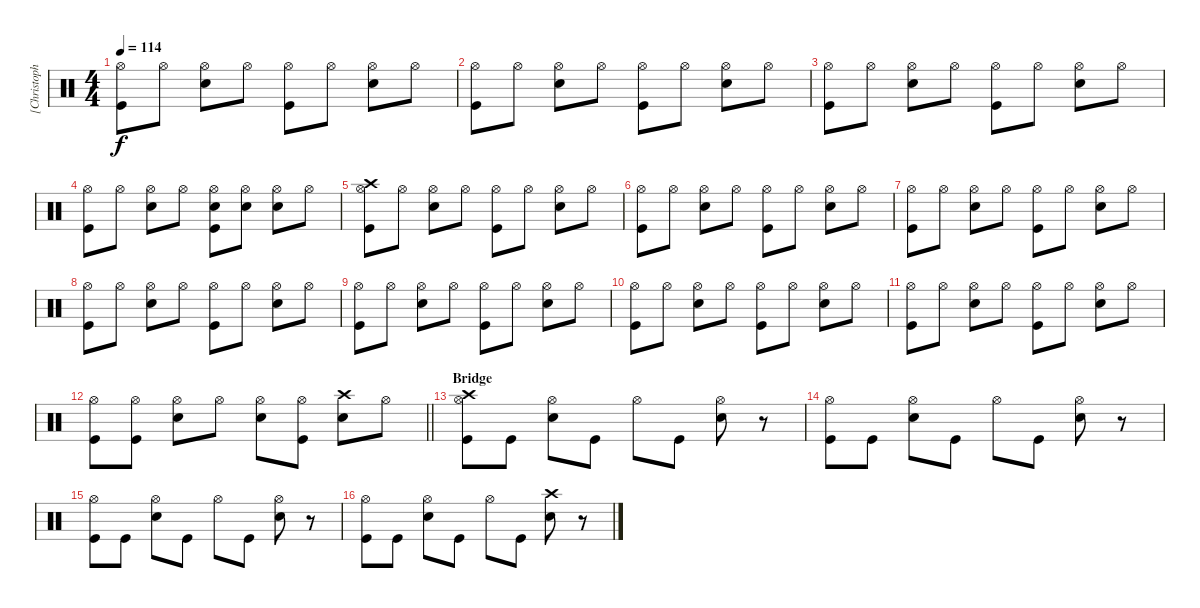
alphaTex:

\track ("[Christoph Schneider] ;Drums" "[Christoph") {solo instrument percussion}
\staff {score}
\articulation defaults
\ts (4 4)
\tempo 114
\clef neutral
\ks c
("Kick (hit)" "Hi-Hat (open)").8{dy f} "Hi-Hat (open)".8 ("Hi-Hat (open)" "Snare (hit) 2").8 "Hi-Hat (open)".8 ("Kick (hit)" "Hi-Hat (open)").8 "Hi-Hat (open)".8 ("Hi-Hat (open)" "Snare (hit) 2").8 "Hi-Hat (open)".8 |
("Kick (hit)" "Hi-Hat (open)").8 "Hi-Hat (open)".8 ("Hi-Hat (open)" "Snare (hit) 2").8 "Hi-Hat (open)".8 ("Kick (hit)" "Hi-Hat (open)").8 "Hi-Hat (open)".8 ("Hi-Hat (open)" "Snare (hit) 2").8 "Hi-Hat (open)".8 |
("Kick (hit)" "Hi-Hat (open)").8 "Hi-Hat (open)".8 ("Hi-Hat (open)" "Snare (hit) 2").8 "Hi-Hat (open)".8 ("Kick (hit)" "Hi-Hat (open)").8 "Hi-Hat (open)".8 ("Hi-Hat (open)" "Snare (hit) 2").8 "Hi-Hat (open)".8 |
("Kick (hit)" "Hi-Hat (open)").8 "Hi-Hat (open)".8 ("Snare (hit) 2" "Hi-Hat (open)").8 "Hi-Hat (open)".8 ("Kick (hit)" "Snare (hit) 2" "Hi-Hat (open)").8 ("Snare (hit) 2" "Hi-Hat (open)").8 ("Snare (hit) 2" "Hi-Hat (open)").8 "Hi-Hat (open)".8 |
("Kick (hit)" "Hi-Hat (open)" "Crash high (hit)").8 "Hi-Hat (open)".8 ("Hi-Hat (open)" "Snare (hit) 2").8 "Hi-Hat (open)".8 ("Kick (hit)" "Hi-Hat (open)").8 "Hi-Hat (open)".8 ("Hi-Hat (open)" "Snare (hit) 2").8 "Hi-Hat (open)".8 |
("Kick (hit)" "Hi-Hat (open)").8 "Hi-Hat (open)".8 ("Hi-Hat (open)" "Snare (hit) 2").8 "Hi-Hat (open)".8 ("Kick (hit)" "Hi-Hat (open)").8 "Hi-Hat (open)".8 ("Hi-Hat (open)" "Snare (hit) 2").8 "Hi-Hat (open)".8 |
("Kick (hit)" "Hi-Hat (open)").8 "Hi-Hat (open)".8 ("Hi-Hat (open)" "Snare (hit) 2").8 "Hi-Hat (open)".8 ("Kick (hit)" "Hi-Hat (open)").8 "Hi-Hat (open)".8 ("Hi-Hat (open)" "Snare (hit) 2").8 "Hi-Hat (open)".8 |
("Kick (hit)" "Hi-Hat (open)").8 "Hi-Hat (open)".8 ("Hi-Hat (open)" "Snare (hit) 2").8 "Hi-Hat (open)".8 ("Kick (hit)" "Hi-Hat (open)").8 "Hi-Hat (open)".8 ("Hi-Hat (open)" "Snare (hit) 2").8 "Hi-Hat (open)".8 |
("Kick (hit)" "Hi-Hat (open)").8 "Hi-Hat (open)".8 ("Hi-Hat (open)" "Snare (hit) 2").8 "Hi-Hat (open)".8 ("Kick (hit)" "Hi-Hat (open)").8 "Hi-Hat (open)".8 ("Hi-Hat (open)" "Snare (hit) 2").8 "Hi-Hat (open)".8 |
("Kick (hit)" "Hi-Hat (open)").8 "Hi-Hat (open)".8 ("Hi-Hat (open)" "Snare (hit) 2").8 "Hi-Hat (open)".8 ("Kick (hit)" "Hi-Hat (open)").8 "Hi-Hat (open)".8 ("Hi-Hat (open)" "Snare (hit) 2").8 "Hi-Hat (open)".8 |
("Kick (hit)" "Hi-Hat (open)").8 "Hi-Hat (open)".8 ("Hi-Hat (open)" "Snare (hit) 2").8 "Hi-Hat (open)".8 ("Kick (hit)" "Hi-Hat (open)").8 "Hi-Hat (open)".8 ("Hi-Hat (open)" "Snare (hit) 2").8 "Hi-Hat (open)".8 |
\barLineRight lightlight
("Kick (hit)" "Hi-Hat (open)").8 ("Kick (hit)" "Hi-Hat (open)").8 ("Hi-Hat (open)" "Snare (hit) 2").8 "Hi-Hat (open)".8 ("Hi-Hat (open)" "Snare (hit) 2").8 ("Kick (hit)" "Hi-Hat (open)").8 ("Crash high (hit)" "Snare (hit) 2").8 "Hi-Hat (open)".8 |
\section ("" "Bridge")
("Kick (hit)" "Crash high (hit)" "Hi-Hat (open)").8 "Kick (hit)".8 ("Hi-Hat (open)" "Snare (hit) 2").8 "Kick (hit)".8 "Hi-Hat (open)".8 "Kick (hit)".8 ("Hi-Hat (open)" "Snare (hit) 2").8 r.8 |
("Kick (hit)" "Hi-Hat (open)").8 "Kick (hit)".8 ("Hi-Hat (open)" "Snare (hit) 2").8 "Kick (hit)".8 "Hi-Hat (open)".8 "Kick (hit)".8 ("Hi-Hat (open)" "Snare (hit) 2").8 r.8 |
("Kick (hit)" "Hi-Hat (open)").8 "Kick (hit)".8 ("Hi-Hat (open)" "Snare (hit) 2").8 "Kick (hit)".8 "Hi-Hat (open)".8 "Kick (hit)".8 ("Hi-Hat (open)" "Snare (hit) 2").8 r.8 |
("Kick (hit)" "Hi-Hat (open)").8 "Kick (hit)".8 ("Hi-Hat (open)" "Snare (hit) 2").8 "Kick (hit)".8 "Hi-Hat (open)".8 "Kick (hit)".8 ("Crash high (hit)" "Snare (hit) 2").8 r.8
